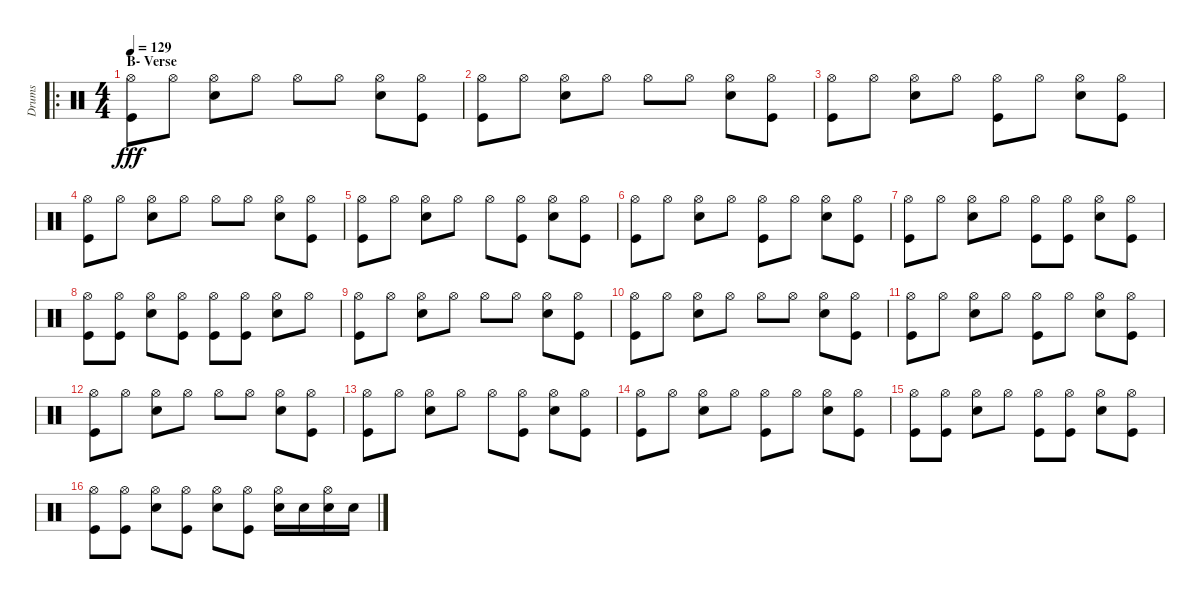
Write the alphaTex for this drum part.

\track ("Drums" "Drums") {instrument percussion}
\staff {score}
\articulation defaults
\ro
\ts (4 4)
\section ("" "B- Verse")
\tempo 129
\clef neutral
\ks c
("Kick (hit)" "Hi-Hat (open)").8{dy fff} "Hi-Hat (open)".8 ("Snare (hit) 2" "Hi-Hat (open)").8 "Hi-Hat (open)".8 "Hi-Hat (open)".8 "Hi-Hat (open)".8 ("Snare (hit) 2" "Hi-Hat (open)").8 ("Kick (hit)" "Hi-Hat (open)").8 |
("Kick (hit)" "Hi-Hat (open)").8 "Hi-Hat (open)".8 ("Snare (hit) 2" "Hi-Hat (open)").8 "Hi-Hat (open)".8 "Hi-Hat (open)".8 "Hi-Hat (open)".8 ("Snare (hit) 2" "Hi-Hat (open)").8 ("Kick (hit)" "Hi-Hat (open)").8 |
("Kick (hit)" "Hi-Hat (open)").8 "Hi-Hat (open)".8 ("Snare (hit) 2" "Hi-Hat (open)").8 "Hi-Hat (open)".8 ("Kick (hit)" "Hi-Hat (open)").8 "Hi-Hat (open)".8 ("Snare (hit) 2" "Hi-Hat (open)").8 ("Kick (hit)" "Hi-Hat (open)").8 |
("Kick (hit)" "Hi-Hat (open)").8 "Hi-Hat (open)".8 ("Snare (hit) 2" "Hi-Hat (open)").8 "Hi-Hat (open)".8 "Hi-Hat (open)".8 "Hi-Hat (open)".8 ("Snare (hit) 2" "Hi-Hat (open)").8 ("Kick (hit)" "Hi-Hat (open)").8 |
("Kick (hit)" "Hi-Hat (open)").8 "Hi-Hat (open)".8 ("Snare (hit) 2" "Hi-Hat (open)").8 "Hi-Hat (open)".8 "Hi-Hat (open)".8 ("Kick (hit)" "Hi-Hat (open)").8 ("Snare (hit) 2" "Hi-Hat (open)").8 ("Kick (hit)" "Hi-Hat (open)").8 |
("Kick (hit)" "Hi-Hat (open)").8 "Hi-Hat (open)".8 ("Snare (hit) 2" "Hi-Hat (open)").8 "Hi-Hat (open)".8 ("Kick (hit)" "Hi-Hat (open)").8 "Hi-Hat (open)".8 ("Snare (hit) 2" "Hi-Hat (open)").8 ("Kick (hit)" "Hi-Hat (open)").8 |
("Kick (hit)" "Hi-Hat (open)").8 "Hi-Hat (open)".8 ("Snare (hit) 2" "Hi-Hat (open)").8 "Hi-Hat (open)".8 ("Kick (hit)" "Hi-Hat (open)").8 ("Kick (hit)" "Hi-Hat (open)").8 ("Snare (hit) 2" "Hi-Hat (open)").8 ("Kick (hit)" "Hi-Hat (open)").8 |
("Kick (hit)" "Hi-Hat (open)").8 ("Kick (hit)" "Hi-Hat (open)").8 ("Snare (hit) 2" "Hi-Hat (open)").8 ("Kick (hit)" "Hi-Hat (open)").8 ("Kick (hit)" "Hi-Hat (open)").8 ("Kick (hit)" "Hi-Hat (open)").8 ("Snare (hit) 2" "Hi-Hat (open)").8 "Hi-Hat (open)".8 |
("Kick (hit)" "Hi-Hat (open)").8 "Hi-Hat (open)".8 ("Snare (hit) 2" "Hi-Hat (open)").8 "Hi-Hat (open)".8 "Hi-Hat (open)".8 "Hi-Hat (open)".8 ("Snare (hit) 2" "Hi-Hat (open)").8 ("Kick (hit)" "Hi-Hat (open)").8 |
("Kick (hit)" "Hi-Hat (open)").8 "Hi-Hat (open)".8 ("Snare (hit) 2" "Hi-Hat (open)").8 "Hi-Hat (open)".8 "Hi-Hat (open)".8 "Hi-Hat (open)".8 ("Snare (hit) 2" "Hi-Hat (open)").8 ("Kick (hit)" "Hi-Hat (open)").8 |
("Kick (hit)" "Hi-Hat (open)").8 "Hi-Hat (open)".8 ("Snare (hit) 2" "Hi-Hat (open)").8 "Hi-Hat (open)".8 ("Kick (hit)" "Hi-Hat (open)").8 "Hi-Hat (open)".8 ("Snare (hit) 2" "Hi-Hat (open)").8 ("Kick (hit)" "Hi-Hat (open)").8 |
("Kick (hit)" "Hi-Hat (open)").8 "Hi-Hat (open)".8 ("Snare (hit) 2" "Hi-Hat (open)").8 "Hi-Hat (open)".8 "Hi-Hat (open)".8 "Hi-Hat (open)".8 ("Snare (hit) 2" "Hi-Hat (open)").8 ("Kick (hit)" "Hi-Hat (open)").8 |
("Kick (hit)" "Hi-Hat (open)").8 "Hi-Hat (open)".8 ("Snare (hit) 2" "Hi-Hat (open)").8 "Hi-Hat (open)".8 "Hi-Hat (open)".8 ("Kick (hit)" "Hi-Hat (open)").8 ("Snare (hit) 2" "Hi-Hat (open)").8 ("Kick (hit)" "Hi-Hat (open)").8 |
("Kick (hit)" "Hi-Hat (open)").8 "Hi-Hat (open)".8 ("Snare (hit) 2" "Hi-Hat (open)").8 "Hi-Hat (open)".8 ("Kick (hit)" "Hi-Hat (open)").8 "Hi-Hat (open)".8 ("Snare (hit) 2" "Hi-Hat (open)").8 ("Kick (hit)" "Hi-Hat (open)").8 |
("Kick (hit)" "Hi-Hat (open)").8 ("Kick (hit)" "Hi-Hat (open)").8 ("Snare (hit) 2" "Hi-Hat (open)").8 "Hi-Hat (open)".8 ("Kick (hit)" "Hi-Hat (open)").8 ("Kick (hit)" "Hi-Hat (open)").8 ("Snare (hit) 2" "Hi-Hat (open)").8 ("Kick (hit)" "Hi-Hat (open)").8 |
("Kick (hit)" "Hi-Hat (open)").8 ("Kick (hit)" "Hi-Hat (open)").8 ("Snare (hit) 2" "Hi-Hat (open)").8 ("Kick (hit)" "Hi-Hat (open)").8 ("Snare (hit) 2" "Hi-Hat (open)").8 ("Kick (hit)" "Hi-Hat (open)").8 ("Snare (hit) 2" "Hi-Hat (open)").16 "Snare (hit) 2".16 ("Snare (hit) 2" "Hi-Hat (open)").16 "Snare (hit) 2".16
